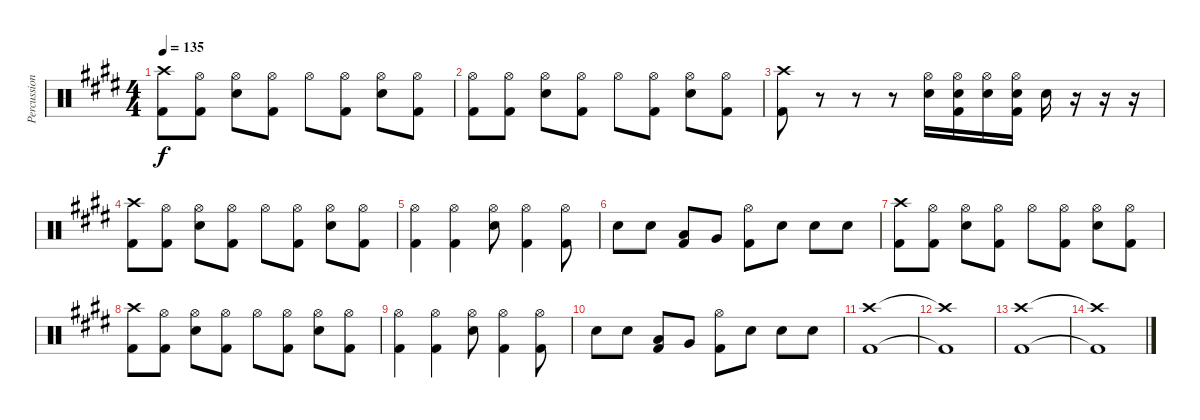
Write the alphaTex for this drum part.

\track ("Percussion" "Percussion") {instrument percussion}
\staff {score}
\articulation defaults
\ts (4 4)
\tempo 135
\clef neutral
\ks e
("Crash high (hit)" "Kick (hit) 2").8{dy f} ("Hi-Hat (open)" "Kick (hit) 2").8 ("Hi-Hat (open)" "Electric Snare (hit)").8 ("Hi-Hat (open)" "Kick (hit) 2").8 "Hi-Hat (open)".8 ("Hi-Hat (open)" "Kick (hit) 2").8 ("Hi-Hat (open)" "Electric Snare (hit)").8 ("Hi-Hat (open)" "Kick (hit) 2").8 |
("Hi-Hat (open)" "Kick (hit) 2").8 ("Hi-Hat (open)" "Kick (hit) 2").8 ("Hi-Hat (open)" "Electric Snare (hit)").8 ("Hi-Hat (open)" "Kick (hit) 2").8 "Hi-Hat (open)".8 ("Hi-Hat (open)" "Kick (hit) 2").8 ("Hi-Hat (open)" "Electric Snare (hit)").8 ("Hi-Hat (open)" "Kick (hit) 2").8 |
("Crash high (hit)" "Kick (hit) 2").8 r.8 r.8 r.8 ("Hi-Hat (open)" "Electric Snare (hit)").16 ("Hi-Hat (open)" "Electric Snare (hit)" "Kick (hit) 2").16 ("Hi-Hat (open)" "Electric Snare (hit)").16 ("Hi-Hat (open)" "Electric Snare (hit)" "Kick (hit) 2").16 "Electric Snare (hit)".16 r.16 r.16 r.16 |
("Crash high (hit)" "Kick (hit) 2").8 ("Hi-Hat (open)" "Kick (hit) 2").8 ("Hi-Hat (open)" "Electric Snare (hit)").8 ("Hi-Hat (open)" "Kick (hit) 2").8 "Hi-Hat (open)".8 ("Hi-Hat (open)" "Kick (hit) 2").8 ("Hi-Hat (open)" "Electric Snare (hit)").8 ("Hi-Hat (open)" "Kick (hit) 2").8 |
("Hi-Hat (open)" "Kick (hit) 2").4 ("Hi-Hat (open)" "Kick (hit) 2").4 ("Hi-Hat (open)" "Electric Snare (hit)").8 ("Hi-Hat (open)" "Kick (hit) 2").4 ("Hi-Hat (open)" "Kick (hit) 2").8 |
"Electric Snare (hit)".8 "Electric Snare (hit)".8 ("Low Tom (hit)" "Kick (hit) 2").8 "Very Low Tom (hit)".8 ("Hi-Hat (open)" "Kick (hit) 2").8 "Electric Snare (hit)".8 "Electric Snare (hit)".8 "Electric Snare (hit)".8 |
("Crash high (hit)" "Kick (hit) 2").8 ("Hi-Hat (open)" "Kick (hit) 2").8 ("Hi-Hat (open)" "Electric Snare (hit)").8 ("Hi-Hat (open)" "Kick (hit) 2").8 "Hi-Hat (open)".8 ("Hi-Hat (open)" "Kick (hit) 2").8 ("Hi-Hat (open)" "Electric Snare (hit)").8 ("Hi-Hat (open)" "Kick (hit) 2").8 |
("Crash high (hit)" "Kick (hit) 2").8 ("Hi-Hat (open)" "Kick (hit) 2").8 ("Hi-Hat (open)" "Electric Snare (hit)").8 ("Hi-Hat (open)" "Kick (hit) 2").8 "Hi-Hat (open)".8 ("Hi-Hat (open)" "Kick (hit) 2").8 ("Hi-Hat (open)" "Electric Snare (hit)").8 ("Hi-Hat (open)" "Kick (hit) 2").8 |
("Hi-Hat (open)" "Kick (hit) 2").4 ("Hi-Hat (open)" "Kick (hit) 2").4 ("Hi-Hat (open)" "Electric Snare (hit)").8 ("Hi-Hat (open)" "Kick (hit) 2").4 ("Hi-Hat (open)" "Kick (hit) 2").8 |
"Electric Snare (hit)".8 "Electric Snare (hit)".8 ("Low Tom (hit)" "Kick (hit) 2").8 "Very Low Tom (hit)".8 ("Hi-Hat (open)" "Kick (hit) 2").8 "Electric Snare (hit)".8 "Electric Snare (hit)".8 "Electric Snare (hit)".8 |
("Crash high (hit)" "Kick (hit) 2").1 |
("Crash high (hit)"{t} "Kick (hit) 2"{t}).1 |
("Crash high (hit)" "Kick (hit) 2").1 |
("Crash high (hit)"{t} "Kick (hit) 2"{t}).1
